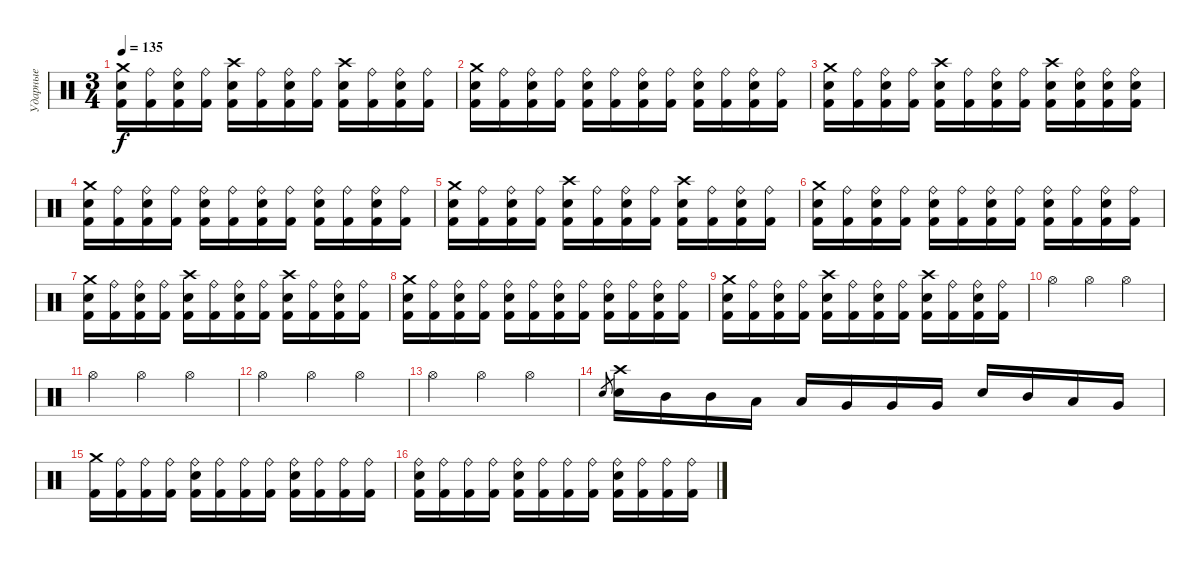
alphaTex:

\track ("Ударные" "Ударные") {instrument percussion}
\staff {score}
\articulation defaults
\ts (3 4)
\tempo 135
\clef neutral
\ks c
("Crash medium (hit)" "Electric Snare (hit)" "Kick (hit) 2").16{dy f} ("Ride (bell)" "Kick (hit) 2").16 ("Ride (bell)" "Electric Snare (hit)" "Kick (hit) 2").16 ("Ride (bell)" "Kick (hit) 2").16 ("Crash high (hit)" "Electric Snare (hit)" "Kick (hit) 2").16 ("Ride (bell)" "Kick (hit) 2").16 ("Ride (bell)" "Electric Snare (hit)" "Kick (hit) 2").16 ("Ride (bell)" "Kick (hit) 2").16 ("Crash high (hit)" "Electric Snare (hit)" "Kick (hit) 2").16 ("Ride (bell)" "Kick (hit) 2").16 ("Ride (bell)" "Electric Snare (hit)" "Kick (hit) 2").16 ("Ride (bell)" "Kick (hit) 2").16 |
("Crash medium (hit)" "Electric Snare (hit)" "Kick (hit) 2").16 ("Ride (bell)" "Kick (hit) 2").16 ("Ride (bell)" "Electric Snare (hit)" "Kick (hit) 2").16 ("Ride (bell)" "Kick (hit) 2").16 ("Ride (bell)" "Electric Snare (hit)" "Kick (hit) 2").16 ("Ride (bell)" "Kick (hit) 2").16 ("Ride (bell)" "Electric Snare (hit)" "Kick (hit) 2").16 ("Ride (bell)" "Kick (hit) 2").16 ("Ride (bell)" "Electric Snare (hit)" "Kick (hit) 2").16 ("Ride (bell)" "Kick (hit) 2").16 ("Ride (bell)" "Electric Snare (hit)" "Kick (hit) 2").16 ("Ride (bell)" "Kick (hit) 2").16 |
("Crash medium (hit)" "Electric Snare (hit)" "Kick (hit) 2").16 ("Ride (bell)" "Kick (hit) 2").16 ("Ride (bell)" "Electric Snare (hit)" "Kick (hit) 2").16 ("Ride (bell)" "Kick (hit) 2").16 ("Crash high (hit)" "Electric Snare (hit)" "Kick (hit) 2").16 ("Ride (bell)" "Kick (hit) 2").16 ("Ride (bell)" "Electric Snare (hit)" "Kick (hit) 2").16 ("Ride (bell)" "Kick (hit) 2").16 ("Crash high (hit)" "Electric Snare (hit)" "Kick (hit) 2").16 ("Ride (bell)" "Electric Snare (hit)" "Kick (hit) 2").16 ("Ride (bell)" "Electric Snare (hit)" "Kick (hit) 2").16 ("Ride (bell)" "Electric Snare (hit)" "Kick (hit) 2").16 |
("Crash medium (hit)" "Electric Snare (hit)" "Kick (hit) 2").16 ("Ride (bell)" "Kick (hit) 2").16 ("Ride (bell)" "Electric Snare (hit)" "Kick (hit) 2").16 ("Ride (bell)" "Kick (hit) 2").16 ("Ride (bell)" "Electric Snare (hit)" "Kick (hit) 2").16 ("Ride (bell)" "Kick (hit) 2").16 ("Ride (bell)" "Electric Snare (hit)" "Kick (hit) 2").16 ("Ride (bell)" "Kick (hit) 2").16 ("Ride (bell)" "Electric Snare (hit)" "Kick (hit) 2").16 ("Ride (bell)" "Kick (hit) 2").16 ("Ride (bell)" "Electric Snare (hit)" "Kick (hit) 2").16 ("Ride (bell)" "Kick (hit) 2").16 |
("Crash medium (hit)" "Electric Snare (hit)" "Kick (hit) 2").16 ("Ride (bell)" "Kick (hit) 2").16 ("Ride (bell)" "Electric Snare (hit)" "Kick (hit) 2").16 ("Ride (bell)" "Kick (hit) 2").16 ("Crash high (hit)" "Electric Snare (hit)" "Kick (hit) 2").16 ("Ride (bell)" "Kick (hit) 2").16 ("Ride (bell)" "Electric Snare (hit)" "Kick (hit) 2").16 ("Ride (bell)" "Kick (hit) 2").16 ("Crash high (hit)" "Electric Snare (hit)" "Kick (hit) 2").16 ("Ride (bell)" "Kick (hit) 2").16 ("Ride (bell)" "Electric Snare (hit)" "Kick (hit) 2").16 ("Ride (bell)" "Kick (hit) 2").16 |
("Crash medium (hit)" "Electric Snare (hit)" "Kick (hit) 2").16 ("Ride (bell)" "Kick (hit) 2").16 ("Ride (bell)" "Electric Snare (hit)" "Kick (hit) 2").16 ("Ride (bell)" "Kick (hit) 2").16 ("Ride (bell)" "Electric Snare (hit)" "Kick (hit) 2").16 ("Ride (bell)" "Kick (hit) 2").16 ("Ride (bell)" "Electric Snare (hit)" "Kick (hit) 2").16 ("Ride (bell)" "Kick (hit) 2").16 ("Ride (bell)" "Electric Snare (hit)" "Kick (hit) 2").16 ("Ride (bell)" "Kick (hit) 2").16 ("Ride (bell)" "Electric Snare (hit)" "Kick (hit) 2").16 ("Ride (bell)" "Kick (hit) 2").16 |
("Crash medium (hit)" "Electric Snare (hit)" "Kick (hit) 2").16 ("Ride (bell)" "Kick (hit) 2").16 ("Ride (bell)" "Electric Snare (hit)" "Kick (hit) 2").16 ("Ride (bell)" "Kick (hit) 2").16 ("Crash high (hit)" "Electric Snare (hit)" "Kick (hit) 2").16 ("Ride (bell)" "Kick (hit) 2").16 ("Ride (bell)" "Electric Snare (hit)" "Kick (hit) 2").16 ("Ride (bell)" "Kick (hit) 2").16 ("Crash high (hit)" "Electric Snare (hit)" "Kick (hit) 2").16 ("Ride (bell)" "Kick (hit) 2").16 ("Ride (bell)" "Electric Snare (hit)" "Kick (hit) 2").16 ("Ride (bell)" "Kick (hit) 2").16 |
("Crash medium (hit)" "Electric Snare (hit)" "Kick (hit) 2").16 ("Ride (bell)" "Kick (hit) 2").16 ("Ride (bell)" "Electric Snare (hit)" "Kick (hit) 2").16 ("Ride (bell)" "Kick (hit) 2").16 ("Ride (bell)" "Electric Snare (hit)" "Kick (hit) 2").16 ("Ride (bell)" "Kick (hit) 2").16 ("Ride (bell)" "Electric Snare (hit)" "Kick (hit) 2").16 ("Ride (bell)" "Kick (hit) 2").16 ("Ride (bell)" "Electric Snare (hit)" "Kick (hit) 2").16 ("Ride (bell)" "Kick (hit) 2").16 ("Ride (bell)" "Electric Snare (hit)" "Kick (hit) 2").16 ("Ride (bell)" "Kick (hit) 2").16 |
("Crash medium (hit)" "Electric Snare (hit)" "Kick (hit) 2").16 ("Ride (bell)" "Kick (hit) 2").16 ("Ride (bell)" "Electric Snare (hit)" "Kick (hit) 2").16 ("Ride (bell)" "Kick (hit) 2").16 ("Crash high (hit)" "Electric Snare (hit)" "Kick (hit) 2").16 ("Ride (bell)" "Kick (hit) 2").16 ("Ride (bell)" "Electric Snare (hit)" "Kick (hit) 2").16 ("Ride (bell)" "Kick (hit) 2").16 ("Crash high (hit)" "Electric Snare (hit)" "Kick (hit) 2").16 ("Ride (bell)" "Kick (hit) 2").16 ("Ride (bell)" "Electric Snare (hit)" "Kick (hit) 2").16 ("Ride (bell)" "Kick (hit) 2").16 |
"Hi-Hat (open)".4 "Hi-Hat (open)".4 "Hi-Hat (open)".4 |
"Hi-Hat (open)".4 "Hi-Hat (open)".4 "Hi-Hat (open)".4 |
"Hi-Hat (open)".4 "Hi-Hat (open)".4 "Hi-Hat (open)".4 |
"Hi-Hat (open)".4 "Hi-Hat (open)".4 "Hi-Hat (open)".4 |
"Electric Snare (hit)".8{gr} ("Crash high (hit)" "Electric Snare (hit)").16 "Mid Tom (hit)".16 "Mid Tom (hit)".16 "Low Tom (hit)".16 "Low Tom (hit)".16 "Very Low Tom (hit)".16 "Very Low Tom (hit)".16 "Very Low Tom (hit)".16 "Electric Snare (hit)".16 "Mid Tom (hit)".16 "Low Tom (hit)".16 "Very Low Tom (hit)".16 |
("Crash medium (hit)" "Kick (hit) 2").16 ("Ride (bell)" "Kick (hit) 2").16 ("Ride (bell)" "Kick (hit) 2").16 ("Ride (bell)" "Kick (hit) 2").16 ("Ride (bell)" "Electric Snare (hit)" "Kick (hit) 2").16 ("Ride (bell)" "Kick (hit) 2").16 ("Ride (bell)" "Kick (hit) 2").16 ("Ride (bell)" "Kick (hit) 2").16 ("Ride (bell)" "Electric Snare (hit)" "Kick (hit) 2").16 ("Ride (bell)" "Kick (hit) 2").16 ("Ride (bell)" "Kick (hit) 2").16 ("Ride (bell)" "Kick (hit) 2").16 |
("Ride (bell)" "Electric Snare (hit)" "Kick (hit) 2").16 ("Ride (bell)" "Kick (hit) 2").16 ("Ride (bell)" "Kick (hit) 2").16 ("Ride (bell)" "Kick (hit) 2").16 ("Ride (bell)" "Electric Snare (hit)" "Kick (hit) 2").16 ("Ride (bell)" "Kick (hit) 2").16 ("Ride (bell)" "Kick (hit) 2").16 ("Ride (bell)" "Kick (hit) 2").16 ("Ride (bell)" "Electric Snare (hit)" "Kick (hit) 2").16 ("Ride (bell)" "Kick (hit) 2").16 ("Ride (bell)" "Kick (hit) 2").16 ("Ride (bell)" "Kick (hit) 2").16
